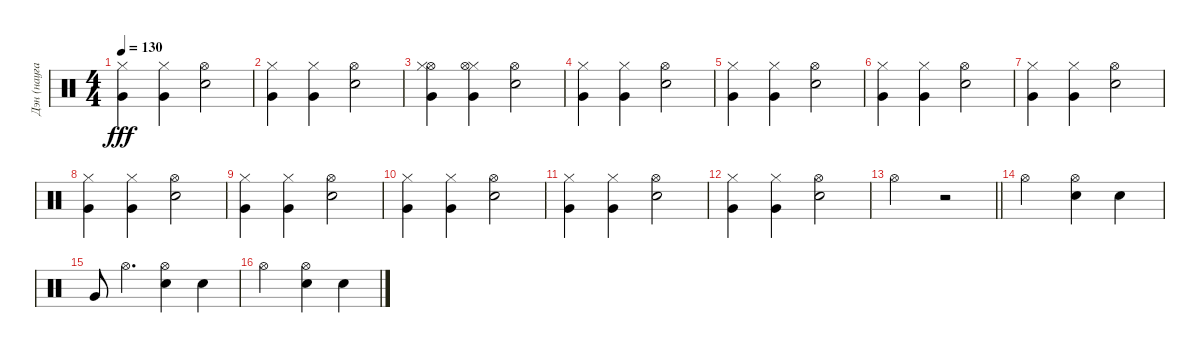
\track ("Дэн (наугад))" "Дэн (науга") {instrument percussion}
\staff {score}
\articulation defaults
\ts (4 4)
\tempo 130
\clef neutral
\ks c
("Hi-Hat (closed)" "Very Low Tom (hit)").4{dy fff} ("Very Low Tom (hit)" "Hi-Hat (closed)").4 ("Snare (hit) 2" "Hi-Hat (open)").2 |
("Hi-Hat (closed)" "Very Low Tom (hit)").4 ("Very Low Tom (hit)" "Hi-Hat (closed)").4 ("Snare (hit) 2" "Hi-Hat (open)").2 |
("Hi-Hat (open)" "Hi-Hat (closed)" "Very Low Tom (hit)").4 ("Very Low Tom (hit)" "Hi-Hat (closed)" "Hi-Hat (open)").4 ("Snare (hit) 2" "Hi-Hat (open)").2 |
("Hi-Hat (closed)" "Very Low Tom (hit)").4 ("Very Low Tom (hit)" "Hi-Hat (closed)").4 ("Snare (hit) 2" "Hi-Hat (open)").2 |
("Hi-Hat (closed)" "Very Low Tom (hit)").4 ("Very Low Tom (hit)" "Hi-Hat (closed)").4 ("Snare (hit) 2" "Hi-Hat (open)").2 |
("Hi-Hat (closed)" "Very Low Tom (hit)").4 ("Very Low Tom (hit)" "Hi-Hat (closed)").4 ("Snare (hit) 2" "Hi-Hat (open)").2 |
("Hi-Hat (closed)" "Very Low Tom (hit)").4 ("Very Low Tom (hit)" "Hi-Hat (closed)").4 ("Snare (hit) 2" "Hi-Hat (open)").2 |
("Hi-Hat (closed)" "Very Low Tom (hit)").4 ("Very Low Tom (hit)" "Hi-Hat (closed)").4 ("Snare (hit) 2" "Hi-Hat (open)").2 |
("Hi-Hat (closed)" "Very Low Tom (hit)").4 ("Very Low Tom (hit)" "Hi-Hat (closed)").4 ("Snare (hit) 2" "Hi-Hat (open)").2 |
("Hi-Hat (closed)" "Very Low Tom (hit)").4 ("Very Low Tom (hit)" "Hi-Hat (closed)").4 ("Snare (hit) 2" "Hi-Hat (open)").2 |
("Hi-Hat (closed)" "Very Low Tom (hit)").4 ("Very Low Tom (hit)" "Hi-Hat (closed)").4 ("Snare (hit) 2" "Hi-Hat (open)").2 |
("Hi-Hat (closed)" "Very Low Tom (hit)").4 ("Very Low Tom (hit)" "Hi-Hat (closed)").4 ("Snare (hit) 2" "Hi-Hat (open)").2 |
\barLineRight lightlight "Hi-Hat (open)".2
r.2 |
"Hi-Hat (open)".2 ("Hi-Hat (open)" "Snare (hit) 2").4 "Snare (hit) 2".4 |
"Very Low Tom (hit)".8 "Hi-Hat (open)".4{d} ("Hi-Hat (open)" "Snare (hit) 2").4 "Snare (hit) 2".4 |
"Hi-Hat (open)".2 ("Hi-Hat (open)" "Snare (hit) 2").4 "Snare (hit) 2".4
